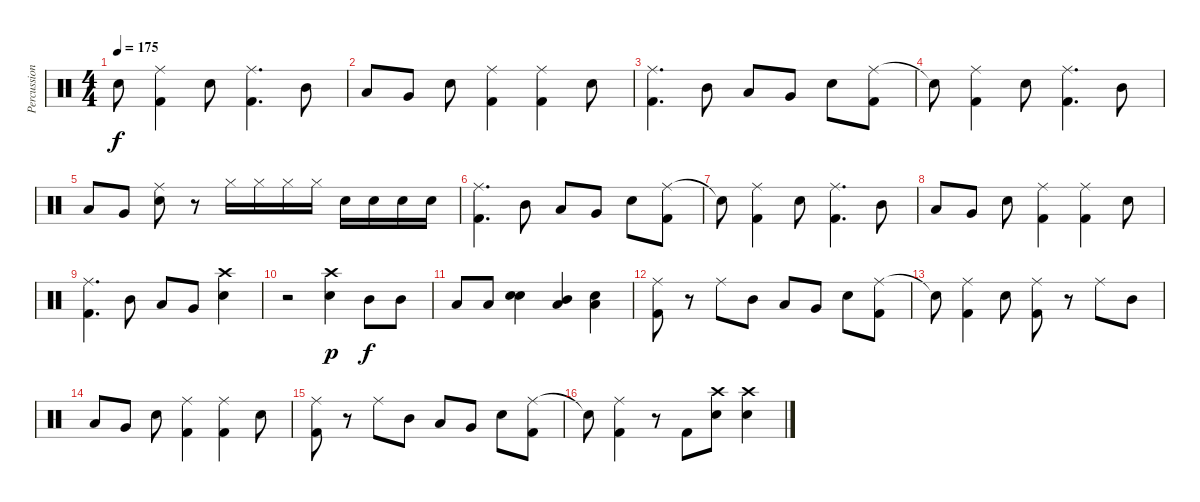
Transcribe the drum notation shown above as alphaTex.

\track ("Percussion" "Percussion") {instrument percussion}
\staff {score}
\articulation defaults
\ts (4 4)
\tempo 175
\clef neutral
\ks c "Snare (hit)"{t}.8{dy f}
("Ride (middle)" "Kick (hit) 2").4 "Electric Snare (hit)".8 ("Ride (middle)" "Kick (hit) 2").4{d} "Mid Tom (hit)".8 |
"Low Tom (hit)".8 "Very Low Tom (hit)".8 "Electric Snare (hit)".8 ("Ride (middle)" "Kick (hit) 2").4 ("Ride (middle)" "Kick (hit) 2").4 "Electric Snare (hit)".8 |
("Ride (middle)" "Kick (hit) 2").4{d} "Mid Tom (hit)".8 "Low Tom (hit)".8 "Very Low Tom (hit)".8 "Electric Snare (hit)".8 ("Ride (middle)" "Kick (hit) 2").8 |
"Snare (hit)"{t}.8 ("Ride (middle)" "Kick (hit) 2").4 "Electric Snare (hit)".8 ("Ride (middle)" "Kick (hit) 2").4{d} "Mid Tom (hit)".8 |
"Low Tom (hit)".8 "Very Low Tom (hit)".8 ("Ride (middle)" "Electric Snare (hit)").8 r.8 "Hi-Hat (closed)".16 "Hi-Hat (closed)".16 "Hi-Hat (closed)".16 "Hi-Hat (closed)".16 "Electric Snare (hit)".16 "Electric Snare (hit)".16 "Electric Snare (hit)".16 "Electric Snare (hit)".16 |
("Ride (middle)" "Kick (hit) 2").4{d} "Mid Tom (hit)".8 "Low Tom (hit)".8 "Very Low Tom (hit)".8 "Electric Snare (hit)".8 ("Ride (middle)" "Kick (hit) 2").8 |
"Snare (hit)"{t}.8 ("Ride (middle)" "Kick (hit) 2").4 "Electric Snare (hit)".8 ("Ride (middle)" "Kick (hit) 2").4{d} "Mid Tom (hit)".8 |
"Low Tom (hit)".8 "Very Low Tom (hit)".8 "Electric Snare (hit)".8 ("Ride (middle)" "Kick (hit) 2").4 ("Ride (middle)" "Kick (hit) 2").4 "Electric Snare (hit)".8 |
("Ride (middle)" "Kick (hit) 2").4{d} "Mid Tom (hit)".8 "Low Tom (hit)".8 "Very Low Tom (hit)".8 ("Crash high (hit)" "Electric Snare (hit)").4 |
r.2 ("Crash high (hit)" "Electric Snare (hit)").4{dy p} "Mid Tom (hit)".8{dy f} "Mid Tom (hit)".8 |
"Low Tom (hit)".8 "Low Tom (hit)".8 ("Electric Snare (hit)" "Electric Snare (hit)").4 ("Mid Tom (hit)" "Low Floor Tom (hit)").4 ("Low Floor Tom (hit)" "Electric Snare (hit)").4 |
("Ride (middle)" "Kick (hit) 2").8 r.8 "Ride (middle)".8 "Mid Tom (hit)".8 "Low Tom (hit)".8 "Very Low Tom (hit)".8 "Electric Snare (hit)".8 ("Ride (middle)" "Kick (hit) 2").8 |
"Snare (hit)"{t}.8 ("Ride (middle)" "Kick (hit) 2").4 "Electric Snare (hit)".8 ("Ride (middle)" "Kick (hit) 2").8 r.8 "Ride (middle)".8 "Mid Tom (hit)".8 |
"Low Tom (hit)".8 "Very Low Tom (hit)".8 "Electric Snare (hit)".8 ("Ride (middle)" "Kick (hit) 2").4 ("Ride (middle)" "Kick (hit) 2").4 "Electric Snare (hit)".8 |
("Ride (middle)" "Kick (hit) 2").8 r.8 "Ride (middle)".8 "Mid Tom (hit)".8 "Low Tom (hit)".8 "Very Low Tom (hit)".8 "Electric Snare (hit)".8 ("Ride (middle)" "Kick (hit) 2").8 |
"Snare (hit)"{t}.8 ("Ride (middle)" "Kick (hit) 2").4 r.8 "Kick (hit) 2".8 ("Crash high (hit)" "Electric Snare (hit)").8 ("Crash high (hit)" "Electric Snare (hit)").4
